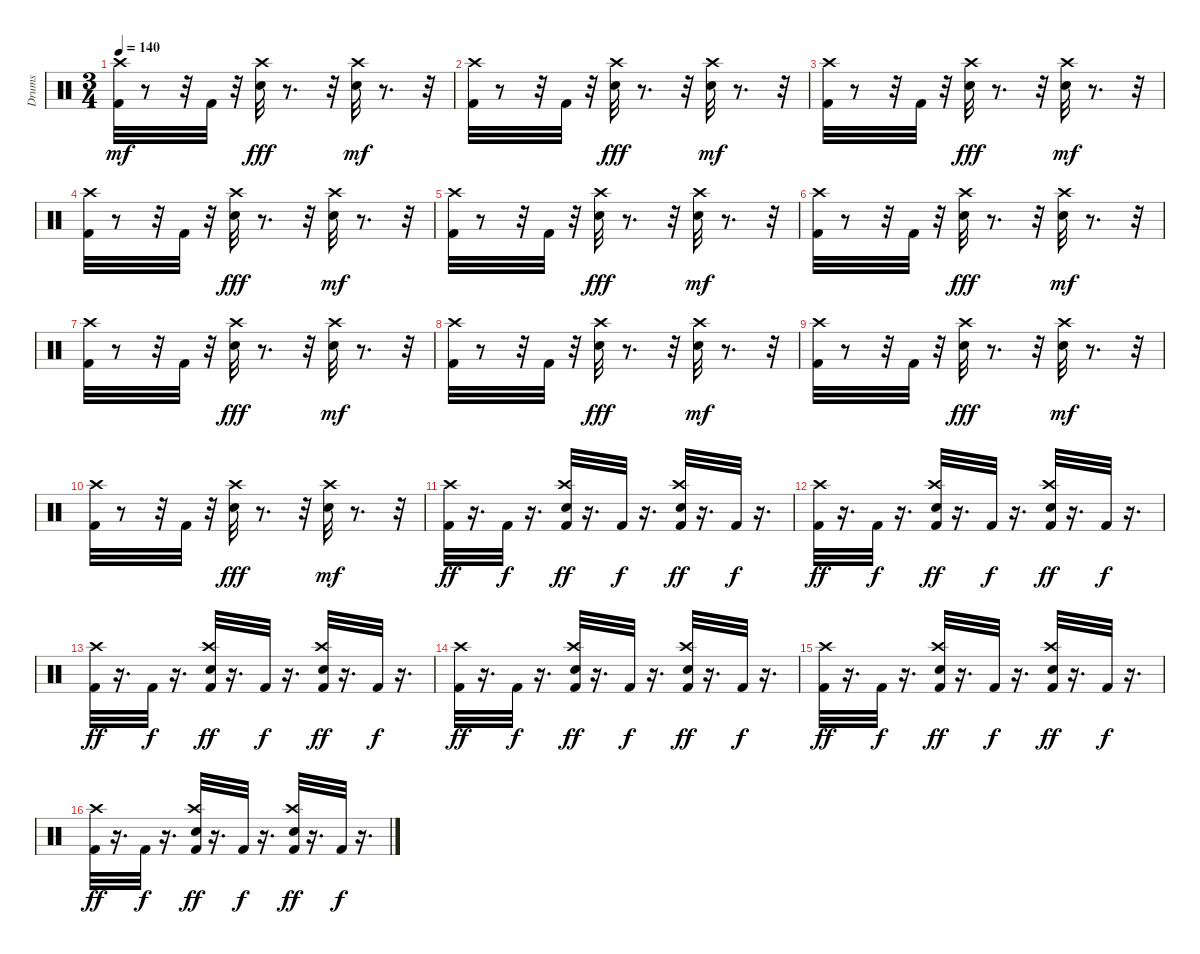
\track ("Drums" "Drums") {instrument percussion}
\staff {score}
\articulation defaults
\ts (3 4)
\tempo 140
\clef neutral
\ks c
("Kick (hit) 2" "Crash high (hit)").32{dy mf} r.8 r.32 "Kick (hit) 2".32 r.32 ("Snare (hit) 2" "Crash high (hit)").32{dy fff} r.8{d} r.32 ("Snare (hit) 2" "Crash high (hit)").32{dy mf} r.8{d} r.32 |
("Kick (hit) 2" "Crash high (hit)").32 r.8 r.32 "Kick (hit) 2".32 r.32 ("Snare (hit) 2" "Crash high (hit)").32{dy fff} r.8{d} r.32 ("Snare (hit) 2" "Crash high (hit)").32{dy mf} r.8{d} r.32 |
("Kick (hit) 2" "Crash high (hit)").32 r.8 r.32 "Kick (hit) 2".32 r.32 ("Snare (hit) 2" "Crash high (hit)").32{dy fff} r.8{d} r.32 ("Snare (hit) 2" "Crash high (hit)").32{dy mf} r.8{d} r.32 |
("Kick (hit) 2" "Crash high (hit)").32 r.8 r.32 "Kick (hit) 2".32 r.32 ("Snare (hit) 2" "Crash high (hit)").32{dy fff} r.8{d} r.32 ("Snare (hit) 2" "Crash high (hit)").32{dy mf} r.8{d} r.32 |
("Kick (hit) 2" "Crash high (hit)").32 r.8 r.32 "Kick (hit) 2".32 r.32 ("Snare (hit) 2" "Crash high (hit)").32{dy fff} r.8{d} r.32 ("Snare (hit) 2" "Crash high (hit)").32{dy mf} r.8{d} r.32 |
("Kick (hit) 2" "Crash high (hit)").32 r.8 r.32 "Kick (hit) 2".32 r.32 ("Snare (hit) 2" "Crash high (hit)").32{dy fff} r.8{d} r.32 ("Snare (hit) 2" "Crash high (hit)").32{dy mf} r.8{d} r.32 |
("Kick (hit) 2" "Crash high (hit)").32 r.8 r.32 "Kick (hit) 2".32 r.32 ("Snare (hit) 2" "Crash high (hit)").32{dy fff} r.8{d} r.32 ("Snare (hit) 2" "Crash high (hit)").32{dy mf} r.8{d} r.32 |
("Kick (hit) 2" "Crash high (hit)").32 r.8 r.32 "Kick (hit) 2".32 r.32 ("Snare (hit) 2" "Crash high (hit)").32{dy fff} r.8{d} r.32 ("Snare (hit) 2" "Crash high (hit)").32{dy mf} r.8{d} r.32 |
("Kick (hit) 2" "Crash high (hit)").32 r.8 r.32 "Kick (hit) 2".32 r.32 ("Snare (hit) 2" "Crash high (hit)").32{dy fff} r.8{d} r.32 ("Snare (hit) 2" "Crash high (hit)").32{dy mf} r.8{d} r.32 |
("Kick (hit) 2" "Crash high (hit)").32 r.8 r.32 "Kick (hit) 2".32 r.32 ("Snare (hit) 2" "Crash high (hit)").32{dy fff} r.8{d} r.32 ("Snare (hit) 2" "Crash high (hit)").32{dy mf} r.8{d} r.32 |
("Crash high (hit)" "Kick (hit) 2").32{dy ff} r.16{d} "Kick (hit) 2".32{dy f} r.16{d} ("Snare (hit) 2" "Crash high (hit)" "Kick (hit) 2").32{dy ff} r.16{d} "Kick (hit) 2".32{dy f} r.16{d} ("Snare (hit) 2" "Crash high (hit)" "Kick (hit) 2").32{dy ff} r.16{d} "Kick (hit) 2".32{dy f} r.16{d} |
("Crash high (hit)" "Kick (hit) 2").32{dy ff} r.16{d} "Kick (hit) 2".32{dy f} r.16{d} ("Snare (hit) 2" "Crash high (hit)" "Kick (hit) 2").32{dy ff} r.16{d} "Kick (hit) 2".32{dy f} r.16{d} ("Snare (hit) 2" "Crash high (hit)" "Kick (hit) 2").32{dy ff} r.16{d} "Kick (hit) 2".32{dy f} r.16{d} |
("Crash high (hit)" "Kick (hit) 2").32{dy ff} r.16{d} "Kick (hit) 2".32{dy f} r.16{d} ("Snare (hit) 2" "Crash high (hit)" "Kick (hit) 2").32{dy ff} r.16{d} "Kick (hit) 2".32{dy f} r.16{d} ("Snare (hit) 2" "Crash high (hit)" "Kick (hit) 2").32{dy ff} r.16{d} "Kick (hit) 2".32{dy f} r.16{d} |
("Crash high (hit)" "Kick (hit) 2").32{dy ff} r.16{d} "Kick (hit) 2".32{dy f} r.16{d} ("Snare (hit) 2" "Crash high (hit)" "Kick (hit) 2").32{dy ff} r.16{d} "Kick (hit) 2".32{dy f} r.16{d} ("Snare (hit) 2" "Crash high (hit)" "Kick (hit) 2").32{dy ff} r.16{d} "Kick (hit) 2".32{dy f} r.16{d} |
("Crash high (hit)" "Kick (hit) 2").32{dy ff} r.16{d} "Kick (hit) 2".32{dy f} r.16{d} ("Snare (hit) 2" "Crash high (hit)" "Kick (hit) 2").32{dy ff} r.16{d} "Kick (hit) 2".32{dy f} r.16{d} ("Snare (hit) 2" "Crash high (hit)" "Kick (hit) 2").32{dy ff} r.16{d} "Kick (hit) 2".32{dy f} r.16{d} |
("Crash high (hit)" "Kick (hit) 2").32{dy ff} r.16{d} "Kick (hit) 2".32{dy f} r.16{d} ("Snare (hit) 2" "Crash high (hit)" "Kick (hit) 2").32{dy ff} r.16{d} "Kick (hit) 2".32{dy f} r.16{d} ("Snare (hit) 2" "Crash high (hit)" "Kick (hit) 2").32{dy ff} r.16{d} "Kick (hit) 2".32{dy f} r.16{d}
